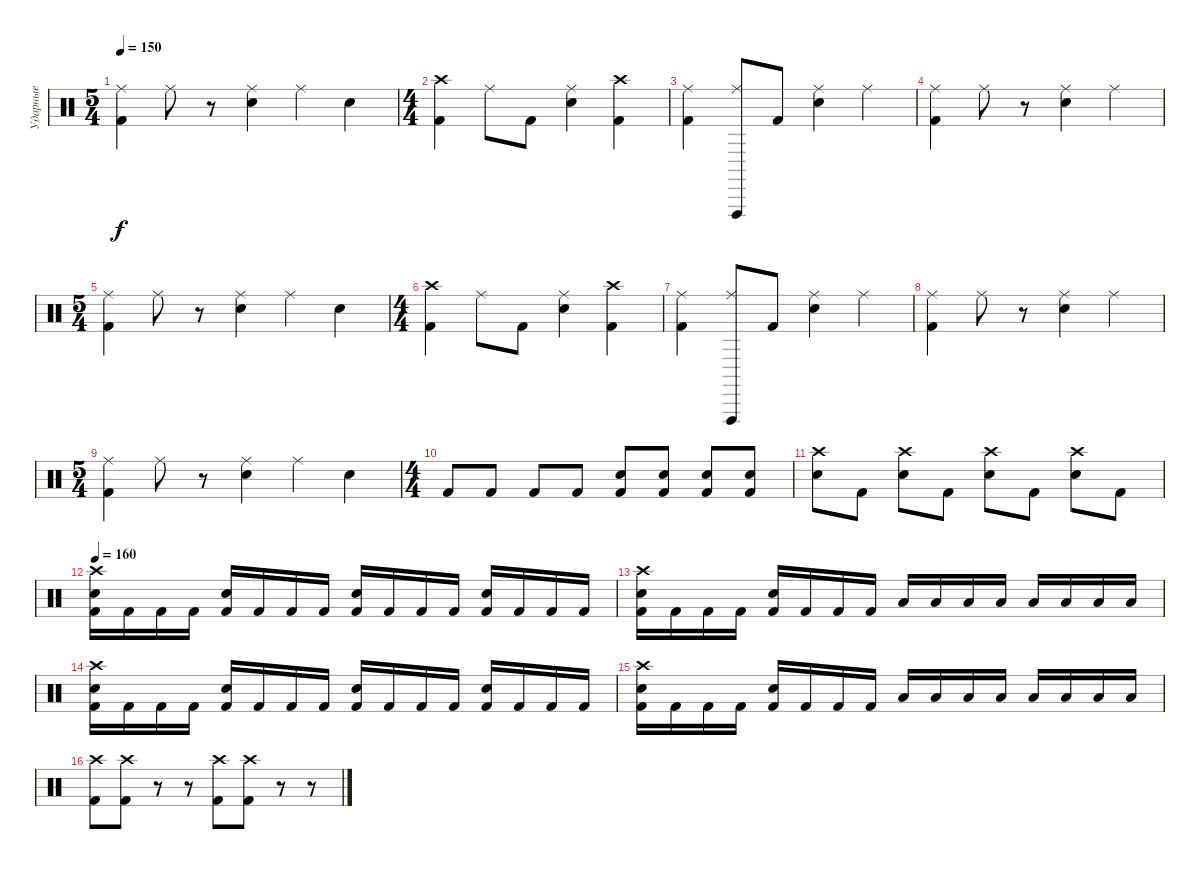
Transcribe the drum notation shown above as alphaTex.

\track ("Ударные" "Ударные") {instrument percussion}
\staff {score}
\articulation defaults
\ts (5 4)
\tempo 150
\clef neutral
\ks c
("Kick (hit) 2" "Ride (middle)").4{dy f} "Ride (middle)".8 r.8 ("Ride (middle)" "Electric Snare (hit)").4 "Ride (middle)".4 "Electric Snare (hit)".4 |
\ts (4 4)
("Kick (hit) 2" "Crash high (hit)").4 "Ride (middle)".8 "Kick (hit) 2".8 ("Ride (middle)" "Electric Snare (hit)").4 ("Crash high (hit)" "Kick (hit) 2").4 |
("Kick (hit) 2" "Ride (middle)").4 ("Vibraslap (hit)" "Ride (middle)").8 "Kick (hit) 2".8 ("Ride (middle)" "Electric Snare (hit)").4 "Ride (middle)".4 |
("Kick (hit) 2" "Ride (middle)").4 "Ride (middle)".8 r.8 ("Ride (middle)" "Electric Snare (hit)").4 "Ride (middle)".4 |
\ts (5 4)
("Kick (hit) 2" "Ride (middle)").4 "Ride (middle)".8 r.8 ("Ride (middle)" "Electric Snare (hit)").4 "Ride (middle)".4 "Electric Snare (hit)".4 |
\ts (4 4)
("Kick (hit) 2" "Crash high (hit)").4 "Ride (middle)".8 "Kick (hit) 2".8 ("Ride (middle)" "Electric Snare (hit)").4 ("Crash high (hit)" "Kick (hit) 2").4 |
("Kick (hit) 2" "Ride (middle)").4 ("Vibraslap (hit)" "Ride (middle)").8 "Kick (hit) 2".8 ("Ride (middle)" "Electric Snare (hit)").4 "Ride (middle)".4 |
("Kick (hit) 2" "Ride (middle)").4 "Ride (middle)".8 r.8 ("Ride (middle)" "Electric Snare (hit)").4 "Ride (middle)".4 |
\ts (5 4)
("Kick (hit) 2" "Ride (middle)").4 "Ride (middle)".8 r.8 ("Ride (middle)" "Electric Snare (hit)").4 "Ride (middle)".4 "Electric Snare (hit)".4 |
\ts (4 4)
"Kick (hit) 2".8 "Kick (hit) 2".8 "Kick (hit) 2".8 "Kick (hit) 2".8 ("Electric Snare (hit)" "Kick (hit) 2").8 ("Electric Snare (hit)" "Kick (hit) 2").8 ("Electric Snare (hit)" "Kick (hit) 2").8 ("Electric Snare (hit)" "Kick (hit) 2").8 |
("Electric Snare (hit)" "Crash high (hit)").8 "Kick (hit) 2".8 ("Electric Snare (hit)" "Crash high (hit)").8 "Kick (hit) 2".8 ("Electric Snare (hit)" "Crash high (hit)").8 "Kick (hit) 2".8 ("Electric Snare (hit)" "Crash high (hit)").8 "Kick (hit) 2".8 |
\tempo 160
("Crash high (hit)" "Electric Snare (hit)" "Kick (hit) 2").16 "Kick (hit) 2".16 "Kick (hit) 2".16 "Kick (hit) 2".16 ("Electric Snare (hit)" "Kick (hit) 2").16 "Kick (hit) 2".16 "Kick (hit) 2".16 "Kick (hit) 2".16 ("Kick (hit) 2" "Electric Snare (hit)").16 "Kick (hit) 2".16 "Kick (hit) 2".16 "Kick (hit) 2".16 ("Kick (hit) 2" "Electric Snare (hit)").16 "Kick (hit) 2".16 "Kick (hit) 2".16 "Kick (hit) 2".16 |
("Crash high (hit)" "Electric Snare (hit)" "Kick (hit) 2").16 "Kick (hit) 2".16 "Kick (hit) 2".16 "Kick (hit) 2".16 ("Electric Snare (hit)" "Kick (hit) 2").16 "Kick (hit) 2".16 "Kick (hit) 2".16 "Kick (hit) 2".16 "Low Tom (hit)".16 "Low Tom (hit)".16 "Low Tom (hit)".16 "Low Tom (hit)".16 "Low Floor Tom (hit)".16 "Low Floor Tom (hit)".16 "Low Floor Tom (hit)".16 "Low Floor Tom (hit)".16 |
("Crash high (hit)" "Electric Snare (hit)" "Kick (hit) 2").16 "Kick (hit) 2".16 "Kick (hit) 2".16 "Kick (hit) 2".16 ("Electric Snare (hit)" "Kick (hit) 2").16 "Kick (hit) 2".16 "Kick (hit) 2".16 "Kick (hit) 2".16 ("Kick (hit) 2" "Electric Snare (hit)").16 "Kick (hit) 2".16 "Kick (hit) 2".16 "Kick (hit) 2".16 ("Kick (hit) 2" "Electric Snare (hit)").16 "Kick (hit) 2".16 "Kick (hit) 2".16 "Kick (hit) 2".16 |
("Crash high (hit)" "Electric Snare (hit)" "Kick (hit) 2").16 "Kick (hit) 2".16 "Kick (hit) 2".16 "Kick (hit) 2".16 ("Electric Snare (hit)" "Kick (hit) 2").16 "Kick (hit) 2".16 "Kick (hit) 2".16 "Kick (hit) 2".16 "Low Tom (hit)".16 "Low Tom (hit)".16 "Low Tom (hit)".16 "Low Tom (hit)".16 "Low Floor Tom (hit)".16 "Low Floor Tom (hit)".16 "Low Floor Tom (hit)".16 "Low Floor Tom (hit)".16 |
("Crash high (hit)" "Kick (hit) 2").8 ("Crash high (hit)" "Kick (hit) 2").8 r.8 r.8 ("Kick (hit) 2" "Crash high (hit)").8 ("Kick (hit) 2" "Crash high (hit)").8 r.8 r.8
